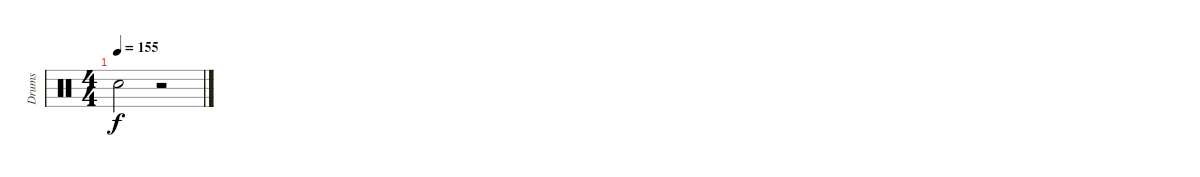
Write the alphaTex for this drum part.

\track ("Drums" "Drums") {instrument percussion}
\staff {score}
\articulation defaults
\ts (4 4)
\tempo 155
\clef neutral
\ks c "Snare (hit)"{t}.2{dy f}
r.2
